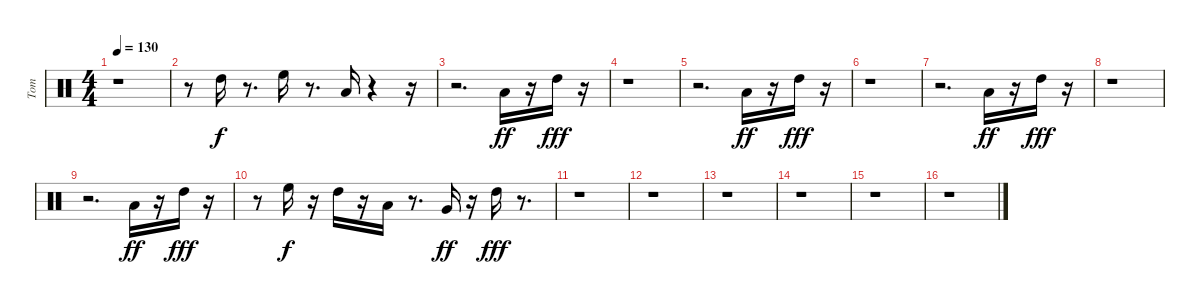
\track ("Tom" "Tom") {instrument percussion}
\staff {score}
\articulation defaults
\ts (4 4)
\tempo 130
\clef neutral
\ks c
r.1{dy f} |
r.8 "High Tom (hit)".16 r.8{d} "High Floor Tom (hit)".16 r.8{d} "Low Tom (hit)".16 r.4 r.16 |
r.2{d} "Low Tom (hit)".16{dy ff} r.16 "High Tom (hit)".16{dy fff} r.16 |
r.1 |
r.2{d} "Low Tom (hit)".16{dy ff} r.16 "High Tom (hit)".16{dy fff} r.16 |
r.1 |
r.2{d} "Low Tom (hit)".16{dy ff} r.16 "High Tom (hit)".16{dy fff} r.16 |
r.1 |
r.2{d} "Low Tom (hit)".16{dy ff} r.16 "High Tom (hit)".16{dy fff} r.16 |
r.8 "High Floor Tom (hit)".16{dy f} r.16 "High Tom (hit)".16 r.16 "Low Tom (hit)".16 r.8{d} "Very Low Tom (hit)".16{dy ff} r.16 "High Tom (hit)".16{dy fff} r.8{d} |
r.1 |
r.1 |
r.1 |
r.1 |
r.1 |
r.1
